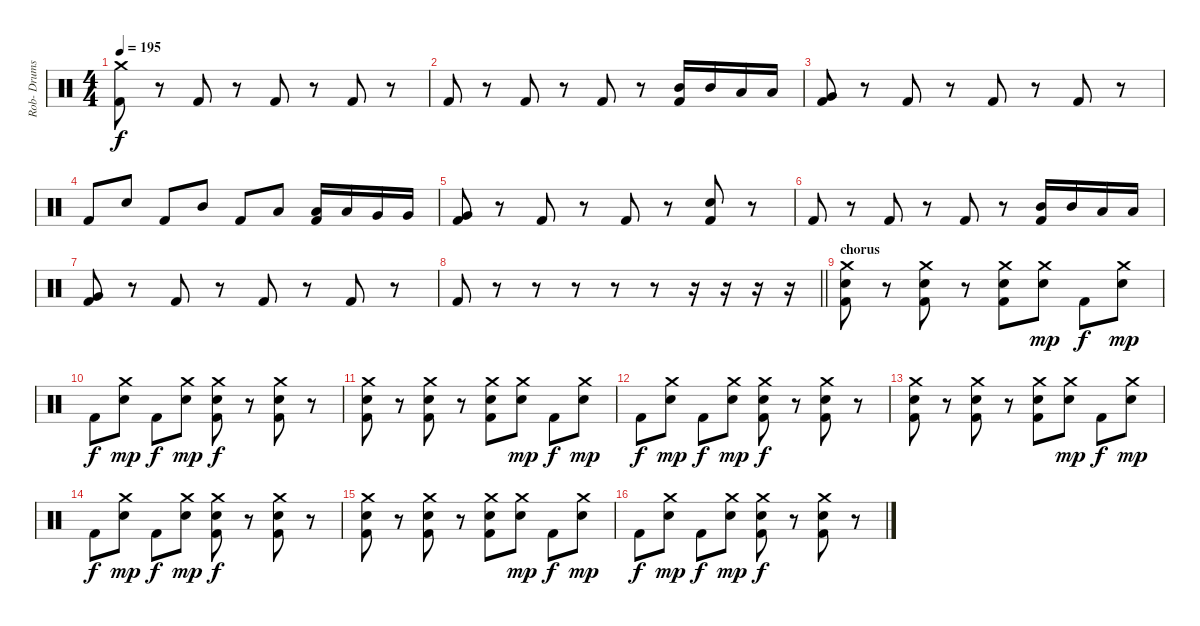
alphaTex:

\track ("Rob- Drums" "Rob- Drums") {instrument percussion}
\staff {score}
\articulation defaults
\ts (4 4)
\tempo 195
\clef neutral
\ks c
("Crash medium (hit)" "Kick (hit) 2").8{dy f} r.8 "Kick (hit) 2".8 r.8 "Kick (hit) 2".8 r.8 "Kick (hit) 2".8 r.8 |
"Kick (hit) 2".8 r.8 "Kick (hit) 2".8 r.8 "Kick (hit) 2".8 r.8 ("Mid Tom (hit)" "Kick (hit) 2").16 "Mid Tom (hit)".16 "Low Tom (hit)".16 "Low Tom (hit)".16 |
("Very Low Tom (hit)" "Kick (hit) 2").8 r.8 "Kick (hit) 2".8 r.8 "Kick (hit) 2".8 r.8 "Kick (hit) 2".8 r.8 |
"Kick (hit) 2".8 "Electric Snare (hit)".8 "Kick (hit) 2".8 "Mid Tom (hit)".8 "Kick (hit) 2".8 "Low Tom (hit)".8 ("Low Tom (hit)" "Kick (hit) 2").16 "Low Tom (hit)".16 "Very Low Tom (hit)".16 "Very Low Tom (hit)".16 |
("Very Low Tom (hit)" "Kick (hit) 2").8 r.8 "Kick (hit) 2".8 r.8 "Kick (hit) 2".8 r.8 ("Electric Snare (hit)" "Kick (hit) 2").8 r.8 |
"Kick (hit) 2".8 r.8 "Kick (hit) 2".8 r.8 "Kick (hit) 2".8 r.8 ("Mid Tom (hit)" "Kick (hit) 2").16 "Mid Tom (hit)".16 "Low Tom (hit)".16 "Low Tom (hit)".16 |
("Very Low Tom (hit)" "Kick (hit) 2").8 r.8 "Kick (hit) 2".8 r.8 "Kick (hit) 2".8 r.8 "Kick (hit) 2".8 r.8 |
\barLineRight lightlight "Kick (hit) 2".8
r.8 r.8 r.8 r.8 r.8 r.16 r.16 r.16 r.16 |
\section ("" "chorus")
("Crash medium (hit)" "Electric Snare (hit)" "Kick (hit) 2").8 r.8 ("Crash medium (hit)" "Electric Snare (hit)" "Kick (hit) 2").8 r.8 ("Crash medium (hit)" "Electric Snare (hit)" "Kick (hit) 2").8 ("Crash medium (hit)" "Electric Snare (hit)").8{dy mp} "Kick (hit) 2".8{dy f} ("Crash medium (hit)" "Electric Snare (hit)").8{dy mp} |
"Kick (hit) 2".8{dy f} ("Crash medium (hit)" "Electric Snare (hit)").8{dy mp} "Kick (hit) 2".8{dy f} ("Crash medium (hit)" "Electric Snare (hit)").8{dy mp} ("Crash medium (hit)" "Electric Snare (hit)" "Kick (hit) 2").8{dy f} r.8 ("Crash medium (hit)" "Electric Snare (hit)" "Kick (hit) 2").8 r.8 |
("Crash medium (hit)" "Electric Snare (hit)" "Kick (hit) 2").8 r.8 ("Crash medium (hit)" "Electric Snare (hit)" "Kick (hit) 2").8 r.8 ("Crash medium (hit)" "Electric Snare (hit)" "Kick (hit) 2").8 ("Crash medium (hit)" "Electric Snare (hit)").8{dy mp} "Kick (hit) 2".8{dy f} ("Crash medium (hit)" "Electric Snare (hit)").8{dy mp} |
"Kick (hit) 2".8{dy f} ("Crash medium (hit)" "Electric Snare (hit)").8{dy mp} "Kick (hit) 2".8{dy f} ("Crash medium (hit)" "Electric Snare (hit)").8{dy mp} ("Crash medium (hit)" "Electric Snare (hit)" "Kick (hit) 2").8{dy f} r.8 ("Crash medium (hit)" "Electric Snare (hit)" "Kick (hit) 2").8 r.8 |
("Crash medium (hit)" "Electric Snare (hit)" "Kick (hit) 2").8 r.8 ("Crash medium (hit)" "Electric Snare (hit)" "Kick (hit) 2").8 r.8 ("Crash medium (hit)" "Electric Snare (hit)" "Kick (hit) 2").8 ("Crash medium (hit)" "Electric Snare (hit)").8{dy mp} "Kick (hit) 2".8{dy f} ("Crash medium (hit)" "Electric Snare (hit)").8{dy mp} |
"Kick (hit) 2".8{dy f} ("Crash medium (hit)" "Electric Snare (hit)").8{dy mp} "Kick (hit) 2".8{dy f} ("Crash medium (hit)" "Electric Snare (hit)").8{dy mp} ("Crash medium (hit)" "Electric Snare (hit)" "Kick (hit) 2").8{dy f} r.8 ("Crash medium (hit)" "Electric Snare (hit)" "Kick (hit) 2").8 r.8 |
("Crash medium (hit)" "Electric Snare (hit)" "Kick (hit) 2").8 r.8 ("Crash medium (hit)" "Electric Snare (hit)" "Kick (hit) 2").8 r.8 ("Crash medium (hit)" "Electric Snare (hit)" "Kick (hit) 2").8 ("Crash medium (hit)" "Electric Snare (hit)").8{dy mp} "Kick (hit) 2".8{dy f} ("Crash medium (hit)" "Electric Snare (hit)").8{dy mp} |
"Kick (hit) 2".8{dy f} ("Crash medium (hit)" "Electric Snare (hit)").8{dy mp} "Kick (hit) 2".8{dy f} ("Crash medium (hit)" "Electric Snare (hit)").8{dy mp} ("Crash medium (hit)" "Electric Snare (hit)" "Kick (hit) 2").8{dy f} r.8 ("Crash medium (hit)" "Electric Snare (hit)" "Kick (hit) 2").8 r.8
